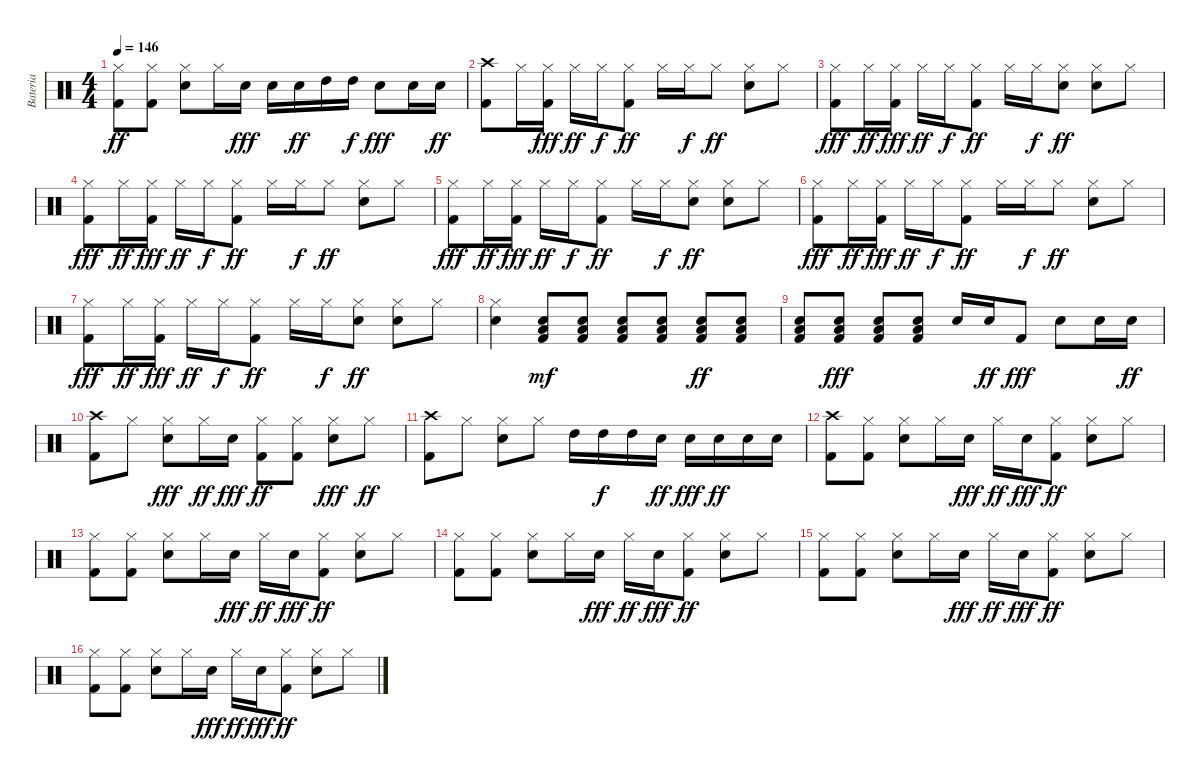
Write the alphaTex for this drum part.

\track ("Bateria" "Bateria") {instrument percussion}
\staff {score}
\articulation defaults
\ts (4 4)
\tempo 146
\clef neutral
\ks c
("Kick (hit) 2" "Hi-Hat (closed)").8{dy ff} ("Kick (hit) 2" "Hi-Hat (closed)").8 ("Electric Snare (hit)" "Hi-Hat (closed)").8 "Hi-Hat (closed)".16 "Electric Snare (hit)".16{dy fff} "Electric Snare (hit)".16 "Electric Snare (hit)".16{dy ff} "High Tom (hit)".16 "High Tom (hit)".16{dy f} "Electric Snare (hit)".8{dy fff} "Electric Snare (hit)".16 "Electric Snare (hit)".16{dy ff} |
("Kick (hit) 2" "Crash high (hit)").8 "Hi-Hat (closed)".16 ("Kick (hit) 2" "Hi-Hat (closed)").16{dy fff} "Hi-Hat (closed)".16{dy ff} "Hi-Hat (closed)".16{dy f} ("Kick (hit) 2" "Hi-Hat (closed)").8{dy ff} "Hi-Hat (closed)".16 "Hi-Hat (closed)".16{dy f} "Hi-Hat (closed)".8{dy ff} ("Electric Snare (hit)" "Hi-Hat (closed)").8 "Hi-Hat (closed)".8 |
("Hi-Hat (closed)" "Kick (hit) 2").8{dy fff} "Hi-Hat (closed)".16{dy ff} ("Kick (hit) 2" "Hi-Hat (closed)").16{dy fff} "Hi-Hat (closed)".16{dy ff} "Hi-Hat (closed)".16{dy f} ("Kick (hit) 2" "Hi-Hat (closed)").8{dy ff} "Hi-Hat (closed)".16 "Hi-Hat (closed)".16{dy f} ("Electric Snare (hit)" "Hi-Hat (closed)").8{dy ff} ("Electric Snare (hit)" "Hi-Hat (closed)").8 "Hi-Hat (closed)".8 |
("Hi-Hat (closed)" "Kick (hit) 2").8{dy fff} "Hi-Hat (closed)".16{dy ff} ("Kick (hit) 2" "Hi-Hat (closed)").16{dy fff} "Hi-Hat (closed)".16{dy ff} "Hi-Hat (closed)".16{dy f} ("Kick (hit) 2" "Hi-Hat (closed)").8{dy ff} "Hi-Hat (closed)".16 "Hi-Hat (closed)".16{dy f} "Hi-Hat (closed)".8{dy ff} ("Electric Snare (hit)" "Hi-Hat (closed)").8 "Hi-Hat (closed)".8 |
("Hi-Hat (closed)" "Kick (hit) 2").8{dy fff} "Hi-Hat (closed)".16{dy ff} ("Kick (hit) 2" "Hi-Hat (closed)").16{dy fff} "Hi-Hat (closed)".16{dy ff} "Hi-Hat (closed)".16{dy f} ("Kick (hit) 2" "Hi-Hat (closed)").8{dy ff} "Hi-Hat (closed)".16 "Hi-Hat (closed)".16{dy f} ("Electric Snare (hit)" "Hi-Hat (closed)").8{dy ff} ("Electric Snare (hit)" "Hi-Hat (closed)").8 "Hi-Hat (closed)".8 |
("Hi-Hat (closed)" "Kick (hit) 2").8{dy fff} "Hi-Hat (closed)".16{dy ff} ("Kick (hit) 2" "Hi-Hat (closed)").16{dy fff} "Hi-Hat (closed)".16{dy ff} "Hi-Hat (closed)".16{dy f} ("Kick (hit) 2" "Hi-Hat (closed)").8{dy ff} "Hi-Hat (closed)".16 "Hi-Hat (closed)".16{dy f} "Hi-Hat (closed)".8{dy ff} ("Electric Snare (hit)" "Hi-Hat (closed)").8 "Hi-Hat (closed)".8 |
("Hi-Hat (closed)" "Kick (hit) 2").8{dy fff} "Hi-Hat (closed)".16{dy ff} ("Kick (hit) 2" "Hi-Hat (closed)").16{dy fff} "Hi-Hat (closed)".16{dy ff} "Hi-Hat (closed)".16{dy f} ("Kick (hit) 2" "Hi-Hat (closed)").8{dy ff} "Hi-Hat (closed)".16 "Hi-Hat (closed)".16{dy f} ("Electric Snare (hit)" "Hi-Hat (closed)").8{dy ff} ("Electric Snare (hit)" "Hi-Hat (closed)").8 "Hi-Hat (closed)".8 |
("Electric Snare (hit)" "Hi-Hat (closed)").4 ("Kick (hit) 2" "Low Floor Tom (hit)" "Electric Snare (hit)").8{dy mf} ("Kick (hit) 2" "Low Floor Tom (hit)" "Electric Snare (hit)").8 ("Kick (hit) 2" "Low Floor Tom (hit)" "Electric Snare (hit)").8 ("Kick (hit) 2" "Low Floor Tom (hit)" "Electric Snare (hit)").8 ("Kick (hit) 2" "Low Floor Tom (hit)" "Electric Snare (hit)").8{dy ff} ("Kick (hit) 2" "Low Floor Tom (hit)" "Electric Snare (hit)").8 |
("Low Floor Tom (hit)" "Electric Snare (hit)" "Kick (hit) 2").8 ("Low Floor Tom (hit)" "Electric Snare (hit)" "Kick (hit) 2").8{dy fff} ("Low Floor Tom (hit)" "Electric Snare (hit)" "Kick (hit) 2").8 ("Low Floor Tom (hit)" "Electric Snare (hit)" "Kick (hit) 2").8 "Electric Snare (hit)".16 "Electric Snare (hit)".16{dy ff} "Kick (hit) 2".8{dy fff} "Electric Snare (hit)".8 "Electric Snare (hit)".16 "Electric Snare (hit)".16{dy ff} |
("Kick (hit) 2" "Crash high (hit)").8 "Hi-Hat (closed)".8 ("Hi-Hat (closed)" "Electric Snare (hit)").8{dy fff} "Hi-Hat (closed)".16{dy ff} "Electric Snare (hit)".16{dy fff} ("Kick (hit) 2" "Hi-Hat (closed)").8{dy ff} ("Kick (hit) 2" "Hi-Hat (closed)").8 ("Hi-Hat (closed)" "Electric Snare (hit)").8{dy fff} "Hi-Hat (closed)".8{dy ff} |
("Kick (hit) 2" "Crash high (hit)").8 "Hi-Hat (closed)".8 ("Electric Snare (hit)" "Hi-Hat (closed)").8 "Hi-Hat (closed)".8 "High Tom (hit)".16 "High Tom (hit)".16{dy f} "High Tom (hit)".16 "Electric Snare (hit)".16{dy ff} "Electric Snare (hit)".16{dy fff} "Electric Snare (hit)".16{dy ff} "Electric Snare (hit)".16 "Electric Snare (hit)".16 |
("Kick (hit) 2" "Crash high (hit)").8 ("Kick (hit) 2" "Hi-Hat (closed)").8 ("Electric Snare (hit)" "Hi-Hat (closed)").8 "Hi-Hat (closed)".16 "Electric Snare (hit)".16{dy fff} "Hi-Hat (closed)".16{dy ff} "Electric Snare (hit)".16{dy fff} ("Kick (hit) 2" "Hi-Hat (closed)").8{dy ff} ("Electric Snare (hit)" "Hi-Hat (closed)").8 "Hi-Hat (closed)".8 |
("Hi-Hat (closed)" "Kick (hit) 2").8 ("Kick (hit) 2" "Hi-Hat (closed)").8 ("Electric Snare (hit)" "Hi-Hat (closed)").8 "Hi-Hat (closed)".16 "Electric Snare (hit)".16{dy fff} "Hi-Hat (closed)".16{dy ff} "Electric Snare (hit)".16{dy fff} ("Kick (hit) 2" "Hi-Hat (closed)").8{dy ff} ("Electric Snare (hit)" "Hi-Hat (closed)").8 "Hi-Hat (closed)".8 |
("Hi-Hat (closed)" "Kick (hit) 2").8 ("Kick (hit) 2" "Hi-Hat (closed)").8 ("Electric Snare (hit)" "Hi-Hat (closed)").8 "Hi-Hat (closed)".16 "Electric Snare (hit)".16{dy fff} "Hi-Hat (closed)".16{dy ff} "Electric Snare (hit)".16{dy fff} ("Kick (hit) 2" "Hi-Hat (closed)").8{dy ff} ("Electric Snare (hit)" "Hi-Hat (closed)").8 "Hi-Hat (closed)".8 |
("Hi-Hat (closed)" "Kick (hit) 2").8 ("Kick (hit) 2" "Hi-Hat (closed)").8 ("Electric Snare (hit)" "Hi-Hat (closed)").8 "Hi-Hat (closed)".16 "Electric Snare (hit)".16{dy fff} "Hi-Hat (closed)".16{dy ff} "Electric Snare (hit)".16{dy fff} ("Kick (hit) 2" "Hi-Hat (closed)").8{dy ff} ("Electric Snare (hit)" "Hi-Hat (closed)").8 "Hi-Hat (closed)".8 |
("Hi-Hat (closed)" "Kick (hit) 2").8 ("Kick (hit) 2" "Hi-Hat (closed)").8 ("Electric Snare (hit)" "Hi-Hat (closed)").8 "Hi-Hat (closed)".16 "Electric Snare (hit)".16{dy fff} "Hi-Hat (closed)".16{dy ff} "Electric Snare (hit)".16{dy fff} ("Kick (hit) 2" "Hi-Hat (closed)").8{dy ff} ("Electric Snare (hit)" "Hi-Hat (closed)").8 "Hi-Hat (closed)".8
